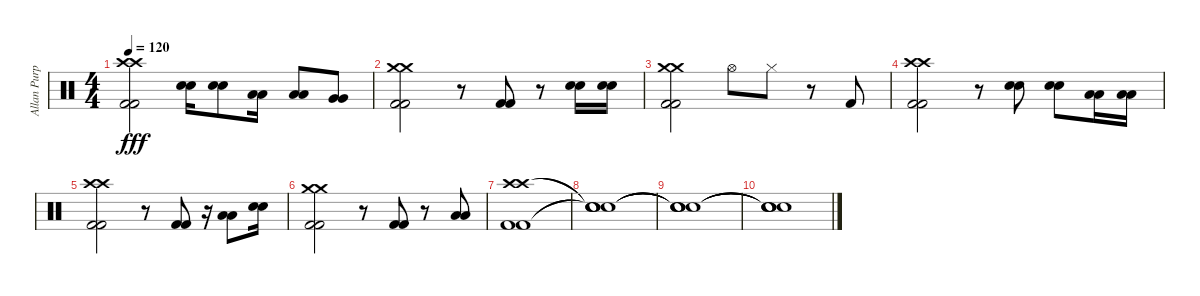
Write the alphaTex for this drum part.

\track ("Allan Purple" "Allan Purp") {instrument percussion}
\staff {score}
\articulation defaults
\ts (4 4)
\tempo 120
\clef neutral
\ks c
("Crash high (hit)" "Crash high (hit)" "Kick (hit) 2" "Kick (hit) 2").2{dy fff} ("Electric Snare (hit)" "Electric Snare (hit)").16 ("Electric Snare (hit)" "Electric Snare (hit)").8 ("Low Tom (hit)" "Low Tom (hit)").16 ("Low Tom (hit)" "Low Tom (hit)").8 ("Very Low Tom (hit)" "Very Low Tom (hit)").8 |
("Crash medium (hit)" "Crash medium (hit)" "Kick (hit) 2" "Kick (hit) 2").2 r.8 ("Kick (hit) 2" "Kick (hit) 2").8 r.8 ("Electric Snare (hit)" "Electric Snare (hit)").16 ("Electric Snare (hit)" "Electric Snare (hit)").16 |
("Crash medium (hit)" "Crash medium (hit)" "Kick (hit) 2" "Kick (hit) 2").2 "Hi-Hat (open)".8 "Hi-Hat (closed)".8 r.8 "Kick (hit) 2".8 |
("Crash high (hit)" "Crash high (hit)" "Kick (hit) 2" "Kick (hit) 2").2 r.8 ("Electric Snare (hit)" "Electric Snare (hit)").8 ("Electric Snare (hit)" "Electric Snare (hit)").8 ("Low Tom (hit)" "Low Tom (hit)").16 ("Low Tom (hit)" "Low Tom (hit)").16 |
("Crash high (hit)" "Crash high (hit)" "Kick (hit) 2" "Kick (hit) 2").2 r.8 ("Kick (hit) 2" "Kick (hit) 2").8 r.16 ("Low Tom (hit)" "Low Tom (hit)").8 ("Electric Snare (hit)" "Electric Snare (hit)").16 |
("Crash medium (hit)" "Crash medium (hit)" "Kick (hit) 2" "Kick (hit) 2").2 r.8 ("Kick (hit) 2" "Kick (hit) 2").8 r.8 ("Low Tom (hit)" "Low Tom (hit)").8 |
("Crash high (hit)" "Crash high (hit)" "Kick (hit) 2" "Kick (hit) 2").1 |
("Snare (hit)"{t} "Snare (hit)"{t} "Snare (hit)"{t} "Snare (hit)"{t}).1 |
("Snare (hit)"{t} "Snare (hit)"{t} "Snare (hit)"{t} "Snare (hit)"{t}).1 |
("Snare (hit)"{t} "Snare (hit)"{t} "Snare (hit)"{t} "Snare (hit)"{t}).1
